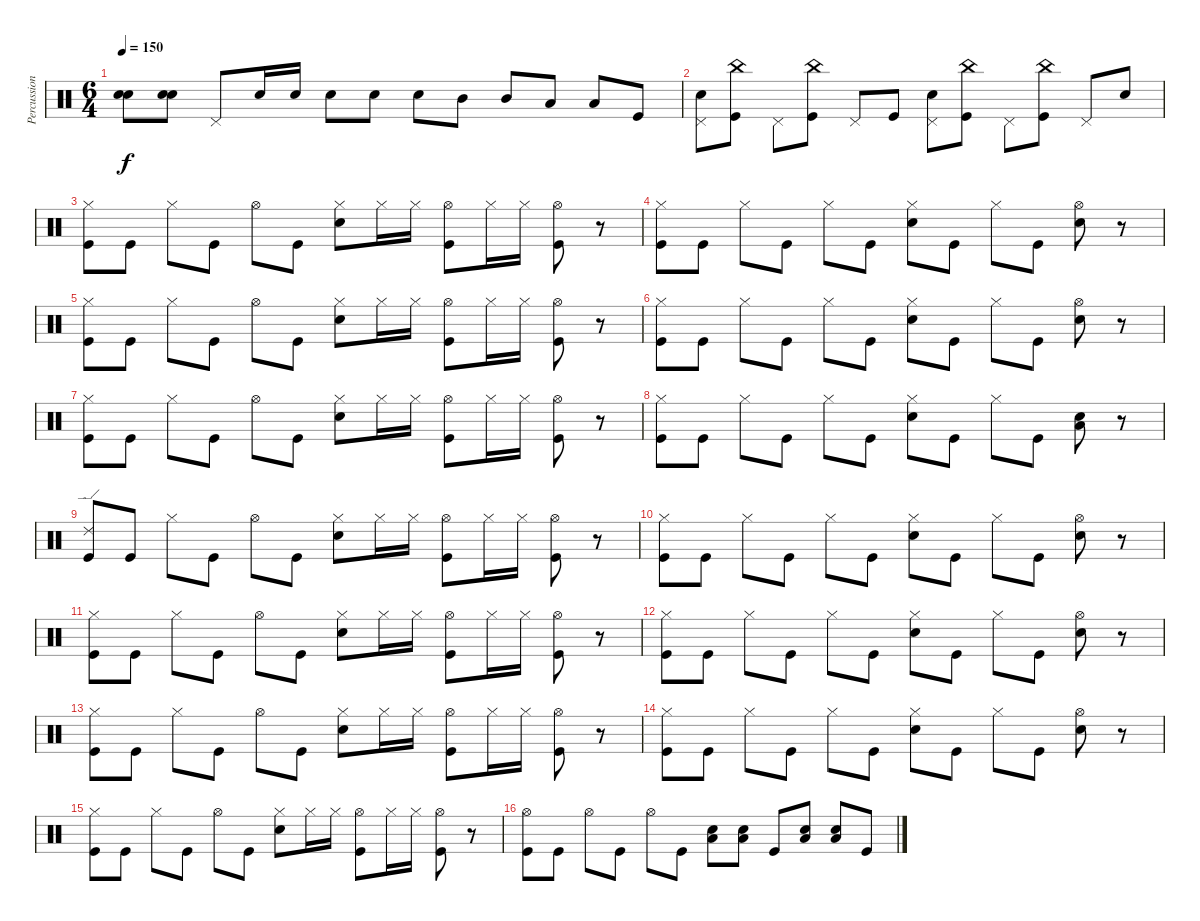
\track ("Percussion" "Percussion") {instrument percussion}
\staff {score}
\articulation defaults
\ts (6 4)
\tempo 150
\clef neutral
\ks c
("Snare (hit) 2" "Snare (hit) 2").8{dy f} ("Snare (hit) 2" "Snare (hit) 2").8 "Pedal Hi-Hat (hit)".8 "Snare (hit) 2".16 "Snare (hit) 2".16 "Snare (hit) 2".8 "Snare (hit) 2".8 "Snare (hit) 2".8 "Mid Tom (hit)".8 "Mid Tom (hit)".8 "Low Tom (hit)".8 "Low Floor Tom (hit)".8 "Kick (hit)".8 |
("Pedal Hi-Hat (hit)" "Snare (hit) 2").8 ("China (hit)" "Kick (hit)").8 "Pedal Hi-Hat (hit)".8 ("China (hit)" "Kick (hit)").8 "Pedal Hi-Hat (hit)".8 "Kick (hit)".8 ("Pedal Hi-Hat (hit)" "Snare (hit) 2").8 ("China (hit)" "Kick (hit)").8 "Pedal Hi-Hat (hit)".8 ("China (hit)" "Kick (hit)").8 "Pedal Hi-Hat (hit)".8 "Snare (hit) 2".8 |
("Hi-Hat (closed)" "Kick (hit)").8 "Kick (hit)".8 "Hi-Hat (closed)".8 "Kick (hit)".8 "Hi-Hat (open)".8 "Kick (hit)".8 ("Hi-Hat (closed)" "Snare (hit) 2").8 "Hi-Hat (closed)".16 "Hi-Hat (closed)".16 ("Hi-Hat (open)" "Kick (hit)").8 "Hi-Hat (closed)".16 "Hi-Hat (closed)".16 ("Hi-Hat (open)" "Kick (hit)").8 r.8 |
("Hi-Hat (closed)" "Kick (hit)").8 "Kick (hit)".8 "Hi-Hat (closed)".8 "Kick (hit)".8 "Hi-Hat (closed)".8 "Kick (hit)".8 ("Hi-Hat (closed)" "Snare (hit) 2").8 "Kick (hit)".8 "Hi-Hat (closed)".8 "Kick (hit)".8 ("Hi-Hat (open)" "Snare (hit) 2").8 r.8 |
("Hi-Hat (closed)" "Kick (hit)").8 "Kick (hit)".8 "Hi-Hat (closed)".8 "Kick (hit)".8 "Hi-Hat (open)".8 "Kick (hit)".8 ("Hi-Hat (closed)" "Snare (hit) 2").8 "Hi-Hat (closed)".16 "Hi-Hat (closed)".16 ("Hi-Hat (open)" "Kick (hit)").8 "Hi-Hat (closed)".16 "Hi-Hat (closed)".16 ("Hi-Hat (open)" "Kick (hit)").8 r.8 |
("Hi-Hat (closed)" "Kick (hit)").8 "Kick (hit)".8 "Hi-Hat (closed)".8 "Kick (hit)".8 "Hi-Hat (closed)".8 "Kick (hit)".8 ("Hi-Hat (closed)" "Snare (hit) 2").8 "Kick (hit)".8 "Hi-Hat (closed)".8 "Kick (hit)".8 ("Hi-Hat (open)" "Snare (hit) 2").8 r.8 |
("Hi-Hat (closed)" "Kick (hit)").8 "Kick (hit)".8 "Hi-Hat (closed)".8 "Kick (hit)".8 "Hi-Hat (open)".8 "Kick (hit)".8 ("Hi-Hat (closed)" "Snare (hit) 2").8 "Hi-Hat (closed)".16 "Hi-Hat (closed)".16 ("Hi-Hat (open)" "Kick (hit)").8 "Hi-Hat (closed)".16 "Hi-Hat (closed)".16 ("Hi-Hat (open)" "Kick (hit)").8 r.8 |
("Hi-Hat (closed)" "Kick (hit)").8 "Kick (hit)".8 "Hi-Hat (closed)".8 "Kick (hit)".8 "Hi-Hat (closed)".8 "Kick (hit)".8 ("Hi-Hat (closed)" "Snare (hit) 2").8 "Kick (hit)".8 "Hi-Hat (closed)".8 "Kick (hit)".8 ("Low Floor Tom (hit)" "Snare (hit) 2").8 r.8 |
("Ride (edge) 2" "Kick (hit)").8 "Kick (hit)".8 "Hi-Hat (closed)".8 "Kick (hit)".8 "Hi-Hat (open)".8 "Kick (hit)".8 ("Hi-Hat (closed)" "Snare (hit) 2").8 "Hi-Hat (closed)".16 "Hi-Hat (closed)".16 ("Hi-Hat (open)" "Kick (hit)").8 "Hi-Hat (closed)".16 "Hi-Hat (closed)".16 ("Hi-Hat (open)" "Kick (hit)").8 r.8 |
("Hi-Hat (closed)" "Kick (hit)").8 "Kick (hit)".8 "Hi-Hat (closed)".8 "Kick (hit)".8 "Hi-Hat (closed)".8 "Kick (hit)".8 ("Hi-Hat (closed)" "Snare (hit) 2").8 "Kick (hit)".8 "Hi-Hat (closed)".8 "Kick (hit)".8 ("Hi-Hat (open)" "Snare (hit) 2").8 r.8 |
("Hi-Hat (closed)" "Kick (hit)").8 "Kick (hit)".8 "Hi-Hat (closed)".8 "Kick (hit)".8 "Hi-Hat (open)".8 "Kick (hit)".8 ("Hi-Hat (closed)" "Snare (hit) 2").8 "Hi-Hat (closed)".16 "Hi-Hat (closed)".16 ("Hi-Hat (open)" "Kick (hit)").8 "Hi-Hat (closed)".16 "Hi-Hat (closed)".16 ("Hi-Hat (open)" "Kick (hit)").8 r.8 |
("Hi-Hat (closed)" "Kick (hit)").8 "Kick (hit)".8 "Hi-Hat (closed)".8 "Kick (hit)".8 "Hi-Hat (closed)".8 "Kick (hit)".8 ("Hi-Hat (closed)" "Snare (hit) 2").8 "Kick (hit)".8 "Hi-Hat (closed)".8 "Kick (hit)".8 ("Hi-Hat (open)" "Snare (hit) 2").8 r.8 |
("Hi-Hat (closed)" "Kick (hit)").8 "Kick (hit)".8 "Hi-Hat (closed)".8 "Kick (hit)".8 "Hi-Hat (open)".8 "Kick (hit)".8 ("Hi-Hat (closed)" "Snare (hit) 2").8 "Hi-Hat (closed)".16 "Hi-Hat (closed)".16 ("Hi-Hat (open)" "Kick (hit)").8 "Hi-Hat (closed)".16 "Hi-Hat (closed)".16 ("Hi-Hat (open)" "Kick (hit)").8 r.8 |
("Hi-Hat (closed)" "Kick (hit)").8 "Kick (hit)".8 "Hi-Hat (closed)".8 "Kick (hit)".8 "Hi-Hat (closed)".8 "Kick (hit)".8 ("Hi-Hat (closed)" "Snare (hit) 2").8 "Kick (hit)".8 "Hi-Hat (closed)".8 "Kick (hit)".8 ("Hi-Hat (open)" "Snare (hit) 2").8 r.8 |
("Hi-Hat (closed)" "Kick (hit)").8 "Kick (hit)".8 "Hi-Hat (closed)".8 "Kick (hit)".8 "Hi-Hat (open)".8 "Kick (hit)".8 ("Hi-Hat (closed)" "Snare (hit) 2").8 "Hi-Hat (closed)".16 "Hi-Hat (closed)".16 ("Hi-Hat (open)" "Kick (hit)").8 "Hi-Hat (closed)".16 "Hi-Hat (closed)".16 ("Hi-Hat (open)" "Kick (hit)").8 r.8 |
("Hi-Hat (open)" "Kick (hit)").8 "Kick (hit)".8 "Hi-Hat (open)".8 "Kick (hit)".8 "Hi-Hat (open)".8 "Kick (hit)".8 ("Low Floor Tom (hit)" "Snare (hit) 2").8 ("Low Floor Tom (hit)" "Snare (hit) 2").8 "Kick (hit)".8 ("Low Floor Tom (hit)" "Snare (hit) 2").8 ("Low Floor Tom (hit)" "Snare (hit) 2").8 "Kick (hit)".8
